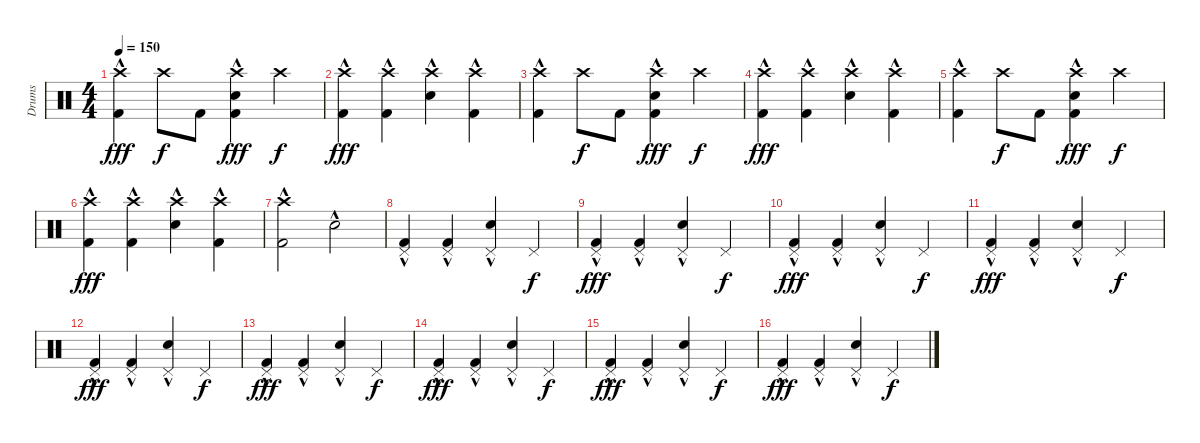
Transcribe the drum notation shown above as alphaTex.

\track ("Drums" "Drums") {instrument percussion}
\staff {score}
\articulation defaults
\ts (4 4)
\tempo 150
\clef neutral
\ks c
("Crash high (hit)" "Kick (hit) 2"{hac}).4{dy fff} "Crash high (hit)".8{dy f} "Kick (hit) 2".8 ("Crash high (hit)" "Electric Snare (hit)"{hac} "Kick (hit) 2"{hac}).4{dy fff} "Crash high (hit)".4{dy f} |
("Crash high (hit)" "Kick (hit) 2"{hac}).4{dy fff} ("Crash high (hit)" "Kick (hit) 2"{hac}).4 ("Crash high (hit)" "Electric Snare (hit)"{hac}).4 ("Crash high (hit)" "Kick (hit) 2"{hac}).4 |
("Crash high (hit)" "Kick (hit) 2"{hac}).4 "Crash high (hit)".8{dy f} "Kick (hit) 2".8 ("Crash high (hit)" "Electric Snare (hit)"{hac} "Kick (hit) 2"{hac}).4{dy fff} "Crash high (hit)".4{dy f} |
("Crash high (hit)" "Kick (hit) 2"{hac}).4{dy fff} ("Crash high (hit)" "Kick (hit) 2"{hac}).4 ("Crash high (hit)" "Electric Snare (hit)"{hac}).4 ("Crash high (hit)" "Kick (hit) 2"{hac}).4 |
("Crash high (hit)" "Kick (hit) 2"{hac}).4 "Crash high (hit)".8{dy f} "Kick (hit) 2".8 ("Crash high (hit)" "Electric Snare (hit)"{hac} "Kick (hit) 2"{hac}).4{dy fff} "Crash high (hit)".4{dy f} |
("Crash high (hit)" "Kick (hit) 2"{hac}).4{dy fff} ("Crash high (hit)" "Kick (hit) 2"{hac}).4 ("Crash high (hit)" "Electric Snare (hit)"{hac}).4 ("Crash high (hit)" "Kick (hit) 2"{hac}).4 |
("Crash high (hit)" "Kick (hit) 2"{hac}).2 "Electric Snare (hit)"{hac}.2 |
("Pedal Hi-Hat (hit)" "Kick (hit) 2"{hac}).4 ("Pedal Hi-Hat (hit)" "Kick (hit) 2"{hac}).4 ("Pedal Hi-Hat (hit)" "Electric Snare (hit)"{hac}).4 "Pedal Hi-Hat (hit)".4{dy f} |
("Pedal Hi-Hat (hit)" "Kick (hit) 2"{hac}).4{dy fff} ("Pedal Hi-Hat (hit)" "Kick (hit) 2"{hac}).4 ("Pedal Hi-Hat (hit)" "Electric Snare (hit)"{hac}).4 "Pedal Hi-Hat (hit)".4{dy f} |
("Pedal Hi-Hat (hit)" "Kick (hit) 2"{hac}).4{dy fff} ("Pedal Hi-Hat (hit)" "Kick (hit) 2"{hac}).4 ("Pedal Hi-Hat (hit)" "Electric Snare (hit)"{hac}).4 "Pedal Hi-Hat (hit)".4{dy f} |
("Pedal Hi-Hat (hit)" "Kick (hit) 2"{hac}).4{dy fff} ("Pedal Hi-Hat (hit)" "Kick (hit) 2"{hac}).4 ("Pedal Hi-Hat (hit)" "Electric Snare (hit)"{hac}).4 "Pedal Hi-Hat (hit)".4{dy f} |
("Pedal Hi-Hat (hit)" "Kick (hit) 2"{hac}).4{dy fff} ("Pedal Hi-Hat (hit)" "Kick (hit) 2"{hac}).4 ("Pedal Hi-Hat (hit)" "Electric Snare (hit)"{hac}).4 "Pedal Hi-Hat (hit)".4{dy f} |
("Pedal Hi-Hat (hit)" "Kick (hit) 2"{hac}).4{dy fff} ("Pedal Hi-Hat (hit)" "Kick (hit) 2"{hac}).4 ("Pedal Hi-Hat (hit)" "Electric Snare (hit)"{hac}).4 "Pedal Hi-Hat (hit)".4{dy f} |
("Pedal Hi-Hat (hit)" "Kick (hit) 2"{hac}).4{dy fff} ("Pedal Hi-Hat (hit)" "Kick (hit) 2"{hac}).4 ("Pedal Hi-Hat (hit)" "Electric Snare (hit)"{hac}).4 "Pedal Hi-Hat (hit)".4{dy f} |
("Pedal Hi-Hat (hit)" "Kick (hit) 2"{hac}).4{dy fff} ("Pedal Hi-Hat (hit)" "Kick (hit) 2"{hac}).4 ("Pedal Hi-Hat (hit)" "Electric Snare (hit)"{hac}).4 "Pedal Hi-Hat (hit)".4{dy f} |
("Pedal Hi-Hat (hit)" "Kick (hit) 2"{hac}).4{dy fff} ("Pedal Hi-Hat (hit)" "Kick (hit) 2"{hac}).4 ("Pedal Hi-Hat (hit)" "Electric Snare (hit)"{hac}).4 "Pedal Hi-Hat (hit)".4{dy f}
